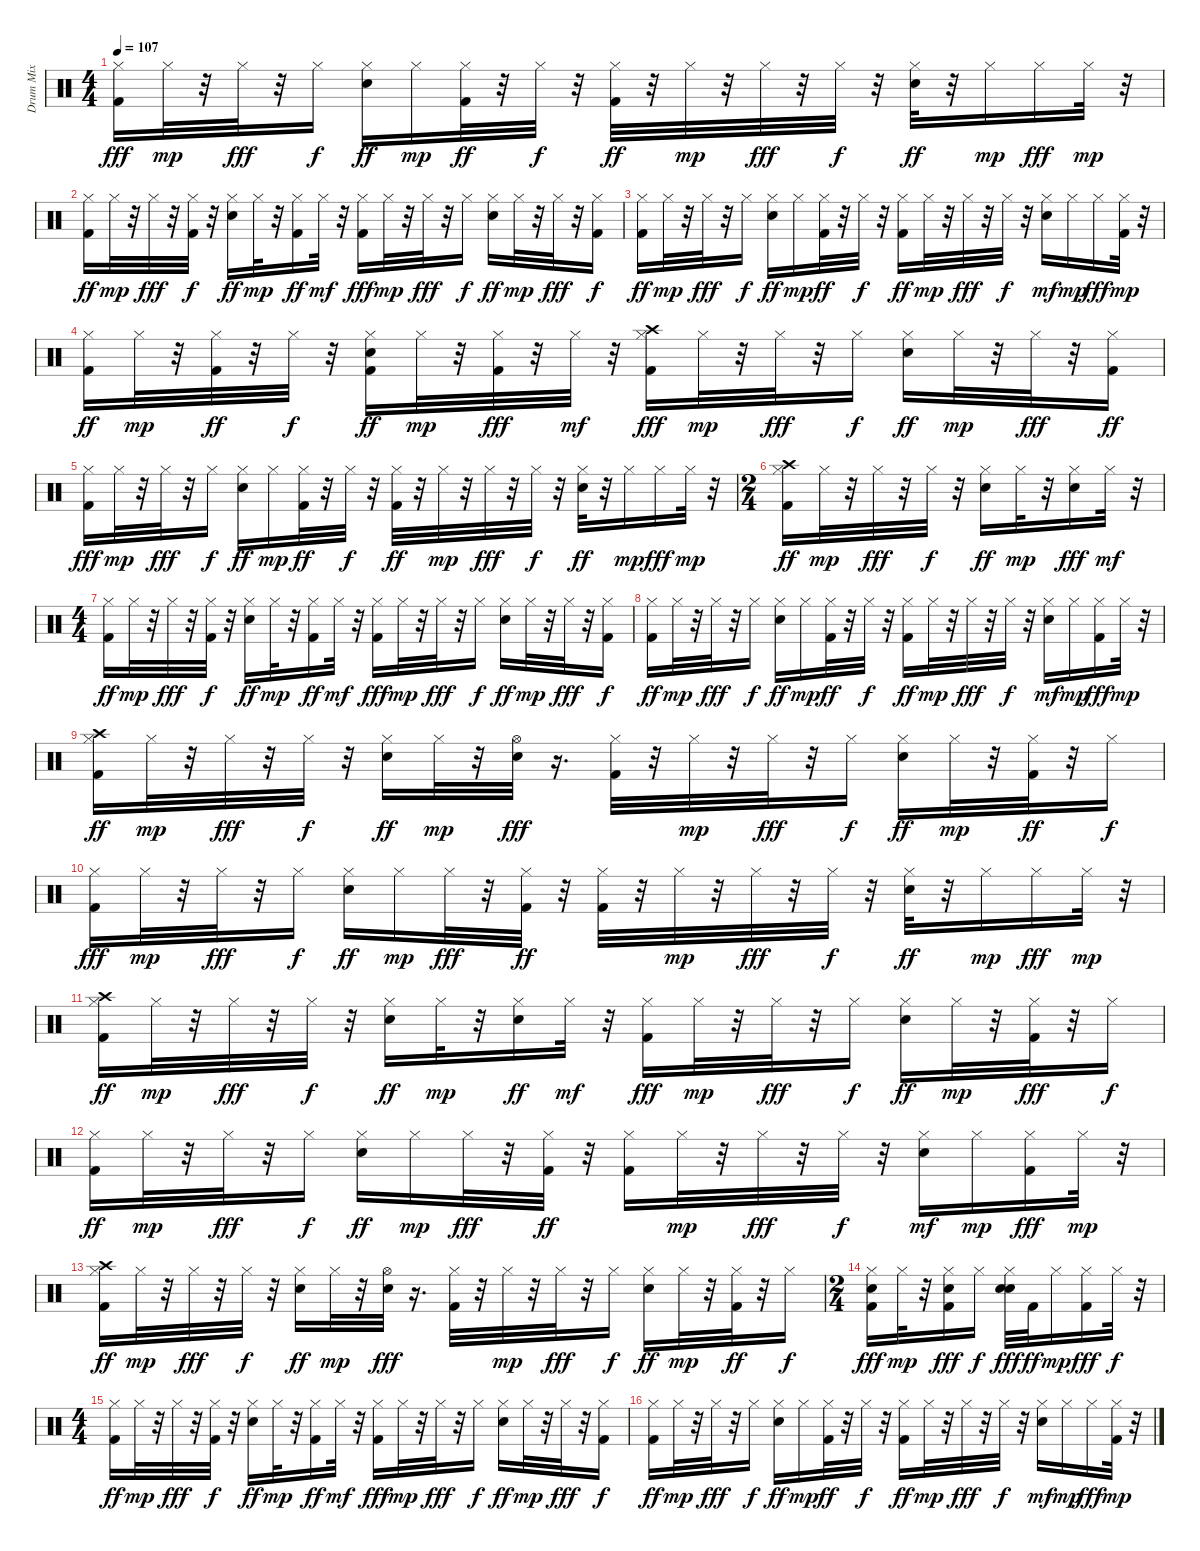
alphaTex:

\track ("Drum Mix" "Drum Mix") {instrument percussion}
\staff {score}
\articulation defaults
\ts (4 4)
\tempo 107
\clef neutral
\ks c
("Hi-Hat (closed)" "Kick (hit) 2").16{dy fff} "Hi-Hat (closed)".32{dy mp} r.32 "Hi-Hat (closed)".32{dy fff} r.32 "Hi-Hat (closed)".16{dy f} ("Hi-Hat (closed)" "Snare (hit) 2").16{dy ff} "Hi-Hat (closed)".16{dy mp} ("Hi-Hat (closed)" "Kick (hit) 2").32{dy ff} r.32 "Hi-Hat (closed)".32{dy f} r.32 ("Hi-Hat (closed)" "Kick (hit) 2").32{dy ff} r.32 "Hi-Hat (closed)".32{dy mp} r.32 "Hi-Hat (closed)".32{dy fff} r.32 "Hi-Hat (closed)".32{dy f} r.32 ("Hi-Hat (closed)" "Snare (hit) 2").32{dy ff} r.32 "Hi-Hat (closed)".16{dy mp} "Hi-Hat (closed)".16{dy fff} "Hi-Hat (closed)".32{dy mp} r.32 |
("Hi-Hat (closed)" "Kick (hit) 2").16{dy ff} "Hi-Hat (closed)".32{dy mp} r.32 "Hi-Hat (closed)".32{dy fff} r.32 ("Hi-Hat (closed)" "Kick (hit) 2").32{dy f} r.32 ("Hi-Hat (closed)" "Snare (hit) 2").16{dy ff} "Hi-Hat (closed)".32{dy mp} r.32 ("Hi-Hat (closed)" "Kick (hit) 2").16{dy ff} "Hi-Hat (closed)".32{dy mf} r.32 ("Hi-Hat (closed)" "Kick (hit) 2").16{dy fff} "Hi-Hat (closed)".32{dy mp} r.32 "Hi-Hat (closed)".32{dy fff} r.32 "Hi-Hat (closed)".16{dy f} ("Hi-Hat (closed)" "Snare (hit) 2").16{dy ff} "Hi-Hat (closed)".32{dy mp} r.32 "Hi-Hat (closed)".32{dy fff} r.32 ("Hi-Hat (closed)" "Kick (hit) 2").16{dy f} |
("Hi-Hat (closed)" "Kick (hit) 2").16{dy ff} "Hi-Hat (closed)".32{dy mp} r.32 "Hi-Hat (closed)".32{dy fff} r.32 "Hi-Hat (closed)".16{dy f} ("Hi-Hat (closed)" "Snare (hit) 2").16{dy ff} "Hi-Hat (closed)".16{dy mp} ("Hi-Hat (closed)" "Kick (hit) 2").32{dy ff} r.32 "Hi-Hat (closed)".32{dy f} r.32 ("Hi-Hat (closed)" "Kick (hit) 2").16{dy ff} "Hi-Hat (closed)".32{dy mp} r.32 "Hi-Hat (closed)".32{dy fff} r.32 "Hi-Hat (closed)".32{dy f} r.32 ("Hi-Hat (closed)" "Snare (hit) 2").16{dy mf} "Hi-Hat (closed)".16{dy mp} "Hi-Hat (closed)".16{dy fff} ("Hi-Hat (closed)" "Kick (hit) 2").32{dy mp} r.32 |
("Hi-Hat (closed)" "Kick (hit) 2").16{dy ff} "Hi-Hat (closed)".32{dy mp} r.32 ("Hi-Hat (closed)" "Kick (hit) 2").32{dy ff} r.32 "Hi-Hat (closed)".32{dy f} r.32 ("Hi-Hat (closed)" "Snare (hit) 2" "Kick (hit) 2").16{dy ff} "Hi-Hat (closed)".32{dy mp} r.32 ("Hi-Hat (closed)" "Kick (hit) 2").32{dy fff} r.32 "Hi-Hat (closed)".32{dy mf} r.32 ("Hi-Hat (closed)" "Kick (hit) 2" "Crash high (hit)").16{dy fff} "Hi-Hat (closed)".32{dy mp} r.32 "Hi-Hat (closed)".32{dy fff} r.32 "Hi-Hat (closed)".16{dy f} ("Hi-Hat (closed)" "Snare (hit) 2").16{dy ff} "Hi-Hat (closed)".32{dy mp} r.32 "Hi-Hat (closed)".32{dy fff} r.32 ("Hi-Hat (closed)" "Kick (hit) 2").16{dy ff} |
("Hi-Hat (closed)" "Kick (hit) 2").16{dy fff} "Hi-Hat (closed)".32{dy mp} r.32 "Hi-Hat (closed)".32{dy fff} r.32 "Hi-Hat (closed)".16{dy f} ("Hi-Hat (closed)" "Snare (hit) 2").16{dy ff} "Hi-Hat (closed)".16{dy mp} ("Hi-Hat (closed)" "Kick (hit) 2").32{dy ff} r.32 "Hi-Hat (closed)".32{dy f} r.32 ("Hi-Hat (closed)" "Kick (hit) 2").32{dy ff} r.32 "Hi-Hat (closed)".32{dy mp} r.32 "Hi-Hat (closed)".32{dy fff} r.32 "Hi-Hat (closed)".32{dy f} r.32 ("Hi-Hat (closed)" "Snare (hit) 2").32{dy ff} r.32 "Hi-Hat (closed)".16{dy mp} "Hi-Hat (closed)".16{dy fff} "Hi-Hat (closed)".32{dy mp} r.32 |
\ts (2 4)
("Hi-Hat (closed)" "Crash high (hit)" "Kick (hit) 2").16{dy ff} "Hi-Hat (closed)".32{dy mp} r.32 "Hi-Hat (closed)".32{dy fff} r.32 "Hi-Hat (closed)".32{dy f} r.32 ("Hi-Hat (closed)" "Snare (hit) 2").16{dy ff} "Hi-Hat (closed)".32{dy mp} r.32 ("Hi-Hat (closed)" "Snare (hit) 2").16{dy fff} "Hi-Hat (closed)".32{dy mf} r.32 |
\ts (4 4)
("Hi-Hat (closed)" "Kick (hit) 2").16{dy ff} "Hi-Hat (closed)".32{dy mp} r.32 "Hi-Hat (closed)".32{dy fff} r.32 ("Hi-Hat (closed)" "Kick (hit) 2").32{dy f} r.32 ("Hi-Hat (closed)" "Snare (hit) 2").16{dy ff} "Hi-Hat (closed)".32{dy mp} r.32 ("Hi-Hat (closed)" "Kick (hit) 2").16{dy ff} "Hi-Hat (closed)".32{dy mf} r.32 ("Hi-Hat (closed)" "Kick (hit) 2").16{dy fff} "Hi-Hat (closed)".32{dy mp} r.32 "Hi-Hat (closed)".32{dy fff} r.32 "Hi-Hat (closed)".16{dy f} ("Hi-Hat (closed)" "Snare (hit) 2").16{dy ff} "Hi-Hat (closed)".32{dy mp} r.32 "Hi-Hat (closed)".32{dy fff} r.32 ("Hi-Hat (closed)" "Kick (hit) 2").16{dy f} |
("Hi-Hat (closed)" "Kick (hit) 2").16{dy ff} "Hi-Hat (closed)".32{dy mp} r.32 "Hi-Hat (closed)".32{dy fff} r.32 "Hi-Hat (closed)".16{dy f} ("Hi-Hat (closed)" "Snare (hit) 2").16{dy ff} "Hi-Hat (closed)".16{dy mp} ("Hi-Hat (closed)" "Kick (hit) 2").32{dy ff} r.32 "Hi-Hat (closed)".32{dy f} r.32 ("Hi-Hat (closed)" "Kick (hit) 2").16{dy ff} "Hi-Hat (closed)".32{dy mp} r.32 "Hi-Hat (closed)".32{dy fff} r.32 "Hi-Hat (closed)".32{dy f} r.32 ("Hi-Hat (closed)" "Snare (hit) 2").16{dy mf} "Hi-Hat (closed)".16{dy mp} ("Hi-Hat (closed)" "Kick (hit) 2").16{dy fff} "Hi-Hat (closed)".32{dy mp} r.32 |
("Hi-Hat (closed)" "Crash high (hit)" "Kick (hit) 2").16{dy ff} "Hi-Hat (closed)".32{dy mp} r.32 "Hi-Hat (closed)".32{dy fff} r.32 "Hi-Hat (closed)".32{dy f} r.32 ("Hi-Hat (closed)" "Snare (hit) 2").16{dy ff} "Hi-Hat (closed)".32{dy mp} r.32 ("Hi-Hat (open)" "Snare (hit) 2").32{dy fff} r.16{d} ("Hi-Hat (closed)" "Kick (hit) 2").32 r.32 "Hi-Hat (closed)".32{dy mp} r.32 "Hi-Hat (closed)".32{dy fff} r.32 "Hi-Hat (closed)".16{dy f} ("Hi-Hat (closed)" "Snare (hit) 2").16{dy ff} "Hi-Hat (closed)".32{dy mp} r.32 ("Hi-Hat (closed)" "Kick (hit) 2").32{dy ff} r.32 "Hi-Hat (closed)".16{dy f} |
("Hi-Hat (closed)" "Kick (hit) 2").16{dy fff} "Hi-Hat (closed)".32{dy mp} r.32 "Hi-Hat (closed)".32{dy fff} r.32 "Hi-Hat (closed)".16{dy f} ("Hi-Hat (closed)" "Snare (hit) 2").16{dy ff} "Hi-Hat (closed)".16{dy mp} "Hi-Hat (closed)".32{dy fff} r.32 ("Hi-Hat (closed)" "Kick (hit) 2").32{dy ff} r.32 ("Hi-Hat (closed)" "Kick (hit) 2").32 r.32 "Hi-Hat (closed)".32{dy mp} r.32 "Hi-Hat (closed)".32{dy fff} r.32 "Hi-Hat (closed)".32{dy f} r.32 ("Hi-Hat (closed)" "Snare (hit) 2").32{dy ff} r.32 "Hi-Hat (closed)".16{dy mp} "Hi-Hat (closed)".16{dy fff} "Hi-Hat (closed)".32{dy mp} r.32 |
("Hi-Hat (closed)" "Crash high (hit)" "Kick (hit) 2").16{dy ff} "Hi-Hat (closed)".32{dy mp} r.32 "Hi-Hat (closed)".32{dy fff} r.32 "Hi-Hat (closed)".32{dy f} r.32 ("Hi-Hat (closed)" "Snare (hit) 2").16{dy ff} "Hi-Hat (closed)".32{dy mp} r.32 ("Hi-Hat (closed)" "Snare (hit) 2").16{dy ff} "Hi-Hat (closed)".32{dy mf} r.32 ("Hi-Hat (closed)" "Kick (hit) 2").16{dy fff} "Hi-Hat (closed)".32{dy mp} r.32 "Hi-Hat (closed)".32{dy fff} r.32 "Hi-Hat (closed)".16{dy f} ("Hi-Hat (closed)" "Snare (hit) 2").16{dy ff} "Hi-Hat (closed)".32{dy mp} r.32 ("Hi-Hat (closed)" "Kick (hit) 2").32{dy fff} r.32 "Hi-Hat (closed)".16{dy f} |
("Hi-Hat (closed)" "Kick (hit) 2").16{dy ff} "Hi-Hat (closed)".32{dy mp} r.32 "Hi-Hat (closed)".32{dy fff} r.32 "Hi-Hat (closed)".16{dy f} ("Hi-Hat (closed)" "Snare (hit) 2").16{dy ff} "Hi-Hat (closed)".16{dy mp} "Hi-Hat (closed)".32{dy fff} r.32 ("Hi-Hat (closed)" "Kick (hit) 2").32{dy ff} r.32 ("Hi-Hat (closed)" "Kick (hit) 2").16 "Hi-Hat (closed)".32{dy mp} r.32 "Hi-Hat (closed)".32{dy fff} r.32 "Hi-Hat (closed)".32{dy f} r.32 ("Hi-Hat (closed)" "Snare (hit) 2").16{dy mf} "Hi-Hat (closed)".16{dy mp} ("Hi-Hat (closed)" "Kick (hit) 2").16{dy fff} "Hi-Hat (closed)".32{dy mp} r.32 |
("Hi-Hat (closed)" "Crash high (hit)" "Kick (hit) 2").16{dy ff} "Hi-Hat (closed)".32{dy mp} r.32 "Hi-Hat (closed)".32{dy fff} r.32 "Hi-Hat (closed)".32{dy f} r.32 ("Hi-Hat (closed)" "Snare (hit) 2").16{dy ff} "Hi-Hat (closed)".32{dy mp} r.32 ("Hi-Hat (open)" "Snare (hit) 2").32{dy fff} r.16{d} ("Hi-Hat (closed)" "Kick (hit) 2").32 r.32 "Hi-Hat (closed)".32{dy mp} r.32 "Hi-Hat (closed)".32{dy fff} r.32 "Hi-Hat (closed)".16{dy f} ("Hi-Hat (closed)" "Snare (hit) 2").16{dy ff} "Hi-Hat (closed)".32{dy mp} r.32 ("Hi-Hat (closed)" "Kick (hit) 2").32{dy ff} r.32 "Hi-Hat (closed)".16{dy f} |
\ts (2 4)
("Hi-Hat (closed)" "Snare (hit) 2" "Kick (hit) 2").16{dy fff} "Hi-Hat (closed)".32{dy mp} r.32 ("Hi-Hat (closed)" "Snare (hit) 2" "Kick (hit) 2").16{dy fff} "Hi-Hat (closed)".16{dy f} ("Snare (hit) 2" "Hi-Hat (closed)" "Snare (hit) 2").32{dy fff} "Kick (hit) 2".32{dy ff} "Hi-Hat (closed)".16{dy mp} ("Hi-Hat (closed)" "Kick (hit) 2").16{dy fff} "Hi-Hat (closed)".32{dy f} r.32 |
\ts (4 4)
("Hi-Hat (closed)" "Kick (hit) 2").16{dy ff} "Hi-Hat (closed)".32{dy mp} r.32 "Hi-Hat (closed)".32{dy fff} r.32 ("Hi-Hat (closed)" "Kick (hit) 2").32{dy f} r.32 ("Hi-Hat (closed)" "Snare (hit) 2").16{dy ff} "Hi-Hat (closed)".32{dy mp} r.32 ("Hi-Hat (closed)" "Kick (hit) 2").16{dy ff} "Hi-Hat (closed)".32{dy mf} r.32 ("Hi-Hat (closed)" "Kick (hit) 2").16{dy fff} "Hi-Hat (closed)".32{dy mp} r.32 "Hi-Hat (closed)".32{dy fff} r.32 "Hi-Hat (closed)".16{dy f} ("Hi-Hat (closed)" "Snare (hit) 2").16{dy ff} "Hi-Hat (closed)".32{dy mp} r.32 "Hi-Hat (closed)".32{dy fff} r.32 ("Hi-Hat (closed)" "Kick (hit) 2").16{dy f} |
("Hi-Hat (closed)" "Kick (hit) 2").16{dy ff} "Hi-Hat (closed)".32{dy mp} r.32 "Hi-Hat (closed)".32{dy fff} r.32 "Hi-Hat (closed)".16{dy f} ("Hi-Hat (closed)" "Snare (hit) 2").16{dy ff} "Hi-Hat (closed)".16{dy mp} ("Hi-Hat (closed)" "Kick (hit) 2").32{dy ff} r.32 "Hi-Hat (closed)".32{dy f} r.32 ("Hi-Hat (closed)" "Kick (hit) 2").16{dy ff} "Hi-Hat (closed)".32{dy mp} r.32 "Hi-Hat (closed)".32{dy fff} r.32 "Hi-Hat (closed)".32{dy f} r.32 ("Hi-Hat (closed)" "Snare (hit) 2").16{dy mf} "Hi-Hat (closed)".16{dy mp} "Hi-Hat (closed)".16{dy fff} ("Hi-Hat (closed)" "Kick (hit) 2").32{dy mp} r.32
